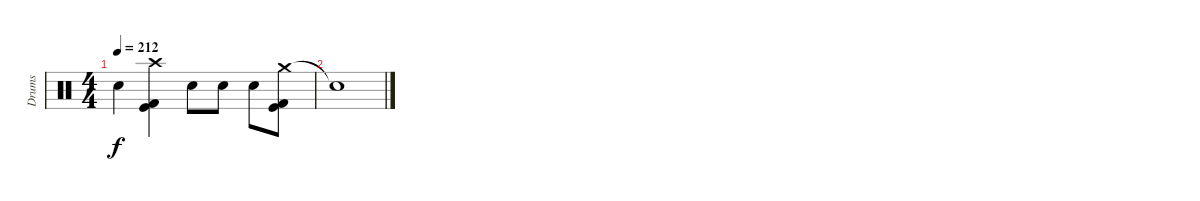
\track ("Drums" "Drums") {instrument percussion}
\staff {score}
\articulation defaults
\ts (4 4)
\tempo 212
\clef neutral
\ks c "Snare (hit)"{t}.4{dy f}
("Crash high (hit)" "Kick (hit)" "Kick (hit) 2").4 "Snare (hit) 2".8 "Snare (hit) 2".8 "Snare (hit) 2".8 ("Crash medium (hit)" "Kick (hit)" "Kick (hit) 2").8 |
"Snare (hit)"{t}.1
